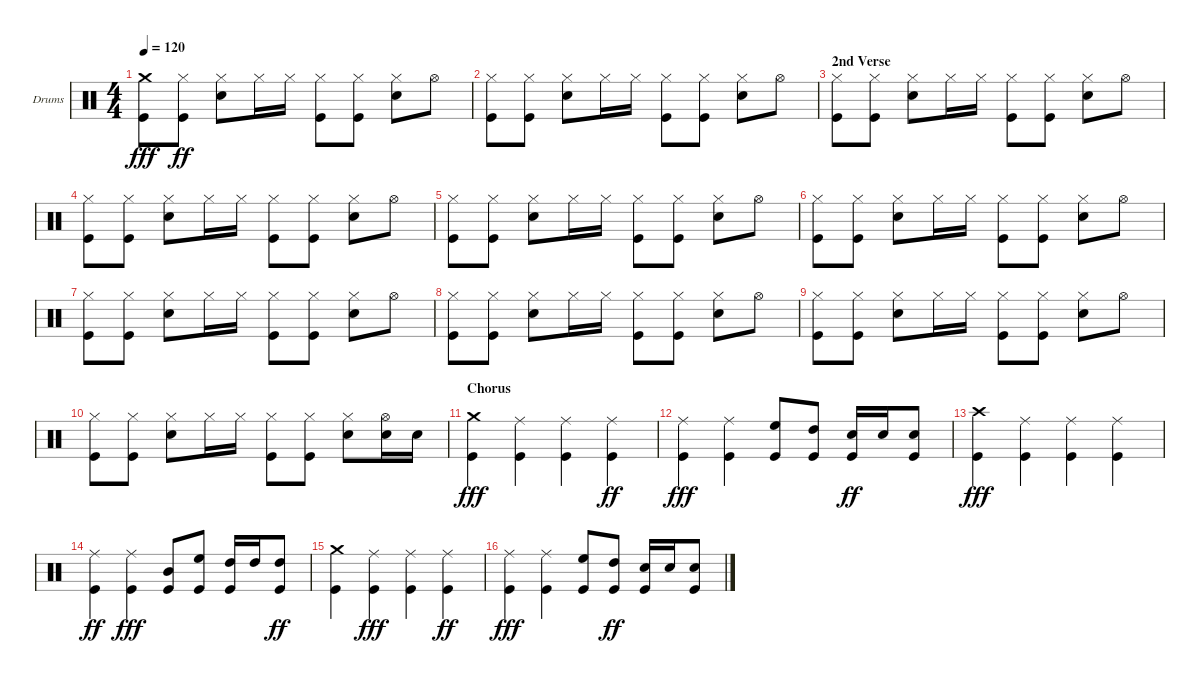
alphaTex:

\defaultSystemsLayout 4
\bracketExtendMode groupsimilarinstruments
\firstSystemTrackNameOrientation horizontal
\otherSystemsTrackNameOrientation horizontal
\track ("Drumkit" "Drums") {instrument percussion}
\staff {score}
\articulation defaults
\ts (4 4)
\tempo 120
\clef neutral
\ks c
("Crash medium (hit)" "Kick (hit)").8{dy fff} ("Hi-Hat (closed)" "Kick (hit)").8{dy ff} ("Hi-Hat (closed)" "Snare (hit) 2").8 "Hi-Hat (closed)".16 "Hi-Hat (closed)".16 ("Hi-Hat (closed)" "Kick (hit)").8 ("Kick (hit)" "Hi-Hat (closed)").8 ("Hi-Hat (closed)" "Snare (hit) 2").8 "Hi-Hat (open)".8 |
("Hi-Hat (closed)" "Kick (hit)").8 ("Hi-Hat (closed)" "Kick (hit)").8 ("Hi-Hat (closed)" "Snare (hit) 2").8 "Hi-Hat (closed)".16 "Hi-Hat (closed)".16 ("Hi-Hat (closed)" "Kick (hit)").8 ("Hi-Hat (closed)" "Kick (hit)").8 ("Hi-Hat (closed)" "Snare (hit) 2").8 "Hi-Hat (open)".8 |
\section ("" "2nd Verse ")
("Kick (hit)" "Hi-Hat (closed)").8 ("Kick (hit)" "Hi-Hat (closed)").8 ("Hi-Hat (closed)" "Snare (hit) 2").8 "Hi-Hat (closed)".16 "Hi-Hat (closed)".16 ("Kick (hit)" "Hi-Hat (closed)").8 ("Hi-Hat (closed)" "Kick (hit)").8 ("Hi-Hat (closed)" "Snare (hit) 2").8 "Hi-Hat (open)".8 |
("Kick (hit)" "Hi-Hat (closed)").8 ("Hi-Hat (closed)" "Kick (hit)").8 ("Hi-Hat (closed)" "Snare (hit) 2").8 "Hi-Hat (closed)".16 "Hi-Hat (closed)".16 ("Hi-Hat (closed)" "Kick (hit)").8 ("Hi-Hat (closed)" "Kick (hit)").8 ("Hi-Hat (closed)" "Snare (hit) 2").8 "Hi-Hat (open)".8 |
("Hi-Hat (closed)" "Kick (hit)").8 ("Kick (hit)" "Hi-Hat (closed)").8 ("Hi-Hat (closed)" "Snare (hit) 2").8 "Hi-Hat (closed)".16 "Hi-Hat (closed)".16 ("Hi-Hat (closed)" "Kick (hit)").8 ("Hi-Hat (closed)" "Kick (hit)").8 ("Snare (hit) 2" "Hi-Hat (closed)").8 "Hi-Hat (open)".8 |
("Kick (hit)" "Hi-Hat (closed)").8 ("Hi-Hat (closed)" "Kick (hit)").8 ("Snare (hit) 2" "Hi-Hat (closed)").8 "Hi-Hat (closed)".16 "Hi-Hat (closed)".16 ("Kick (hit)" "Hi-Hat (closed)").8 ("Hi-Hat (closed)" "Kick (hit)").8 ("Hi-Hat (closed)" "Snare (hit) 2").8 "Hi-Hat (open)".8 |
("Hi-Hat (closed)" "Kick (hit)").8 ("Hi-Hat (closed)" "Kick (hit)").8 ("Hi-Hat (closed)" "Snare (hit) 2").8 "Hi-Hat (closed)".16 "Hi-Hat (closed)".16 ("Hi-Hat (closed)" "Kick (hit)").8 ("Kick (hit)" "Hi-Hat (closed)").8 ("Hi-Hat (closed)" "Snare (hit) 2").8 "Hi-Hat (open)".8 |
("Kick (hit)" "Hi-Hat (closed)").8 ("Hi-Hat (closed)" "Kick (hit)").8 ("Hi-Hat (closed)" "Snare (hit) 2").8 "Hi-Hat (closed)".16 "Hi-Hat (closed)".16 ("Hi-Hat (closed)" "Kick (hit)").8 ("Kick (hit)" "Hi-Hat (closed)").8 ("Snare (hit) 2" "Hi-Hat (closed)").8 "Hi-Hat (open)".8 |
("Hi-Hat (closed)" "Kick (hit)").8 ("Hi-Hat (closed)" "Kick (hit)").8 ("Hi-Hat (closed)" "Snare (hit) 2").8 "Hi-Hat (closed)".16 "Hi-Hat (closed)".16 ("Hi-Hat (closed)" "Kick (hit)").8 ("Hi-Hat (closed)" "Kick (hit)").8 ("Hi-Hat (closed)" "Snare (hit) 2").8 "Hi-Hat (open)".8 |
("Kick (hit)" "Hi-Hat (closed)").8 ("Hi-Hat (closed)" "Kick (hit)").8 ("Hi-Hat (closed)" "Snare (hit) 2").8 "Hi-Hat (closed)".16 "Hi-Hat (closed)".16 ("Hi-Hat (closed)" "Kick (hit)").8 ("Kick (hit)" "Hi-Hat (closed)").8 ("Hi-Hat (closed)" "Snare (hit) 2").8 ("Snare (hit) 2" "Hi-Hat (open)").16 "Snare (hit) 2".16 |
\section ("" "Chorus")
("Crash medium (hit)" "Kick (hit)").4{dy fff} ("Ride (middle)" "Kick (hit)").4 ("Ride (middle)" "Kick (hit)").4 ("Kick (hit)" "Ride (middle)").4{dy ff} |
("Ride (middle)" "Kick (hit)").4{dy fff} ("Ride (middle)" "Kick (hit)").4 ("High Floor Tom (hit)" "Kick (hit)").8 ("High Tom (hit)" "Kick (hit)").8 ("Snare (hit) 2" "Kick (hit)").16{dy ff} "Snare (hit) 2".16 ("Snare (hit) 2" "Kick (hit)").8 |
("Crash high (hit)" "Kick (hit)").4{dy fff} ("Ride (middle)" "Kick (hit)").4 ("Ride (middle)" "Kick (hit)").4 ("Ride (middle)" "Kick (hit)").4 |
("Kick (hit)" "Ride (middle)").4{dy ff} ("Ride (middle)" "Kick (hit)").4{dy fff} ("Mid Tom (hit)" "Kick (hit)").8 ("High Floor Tom (hit)" "Kick (hit)").8 ("High Tom (hit)" "Kick (hit)").16 "High Tom (hit)".16 ("Kick (hit)" "High Tom (hit)").8{dy ff} |
("Kick (hit)" "Crash medium (hit)").4 ("Ride (middle)" "Kick (hit)").4{dy fff} ("Ride (middle)" "Kick (hit)").4 ("Kick (hit)" "Ride (middle)").4{dy ff} |
("Ride (middle)" "Kick (hit)").4{dy fff} ("Ride (middle)" "Kick (hit)").4 ("High Floor Tom (hit)" "Kick (hit)").8 ("Kick (hit)" "High Tom (hit)").8{dy ff} ("Snare (hit) 2" "Kick (hit)").16 "Snare (hit) 2".16 ("Kick (hit)" "Snare (hit) 2").8
